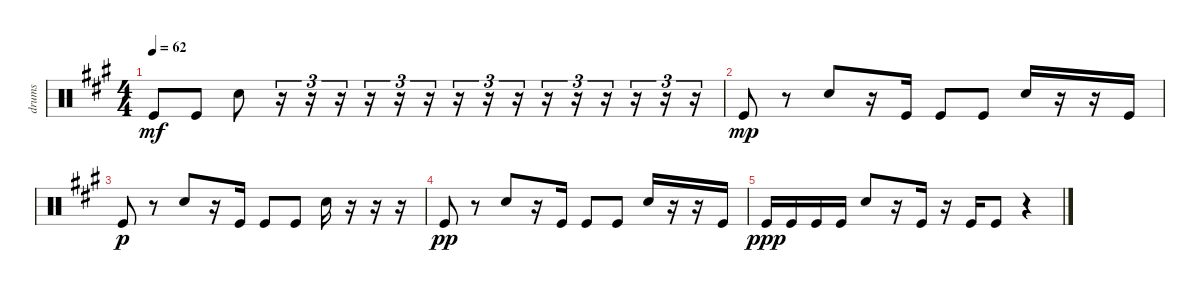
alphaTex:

\track ("drums" "drums") {instrument percussion}
\staff {score}
\articulation defaults
\ts (4 4)
\tempo 62
\clef neutral
\ks a "Kick (hit)".8{dy mf} "Kick (hit)".8 "Electric Snare (hit)".8
r.16{tu (3 2)} r.16{tu (3 2)} r.16{tu (3 2)} r.16{tu (3 2)} r.16{tu (3 2)} r.16{tu (3 2)} r.16{tu (3 2)} r.16{tu (3 2)} r.16{tu (3 2)} r.16{tu (3 2)} r.16{tu (3 2)} r.16{tu (3 2)} r.16{tu (3 2)} r.16{tu (3 2)} r.16{tu (3 2)} |
"Kick (hit)".8{dy mp} r.8 "Electric Snare (hit)".8 r.16 "Kick (hit)".16 "Kick (hit)".8 "Kick (hit)".8 "Electric Snare (hit)".16 r.16 r.16 "Kick (hit)".16 |
"Kick (hit)".8{dy p} r.8 "Electric Snare (hit)".8 r.16 "Kick (hit)".16 "Kick (hit)".8 "Kick (hit)".8 "Electric Snare (hit)".16 r.16 r.16 r.16 |
"Kick (hit)".8{dy pp} r.8 "Electric Snare (hit)".8 r.16 "Kick (hit)".16 "Kick (hit)".8 "Kick (hit)".8 "Electric Snare (hit)".16 r.16 r.16 "Kick (hit)".16 |
"Kick (hit)".16{dy ppp} "Kick (hit)".16 "Kick (hit)".16 "Kick (hit)".16 "Electric Snare (hit)".8 r.16 "Kick (hit)".16 r.16 "Kick (hit)".16 "Kick (hit)".8 r.4
